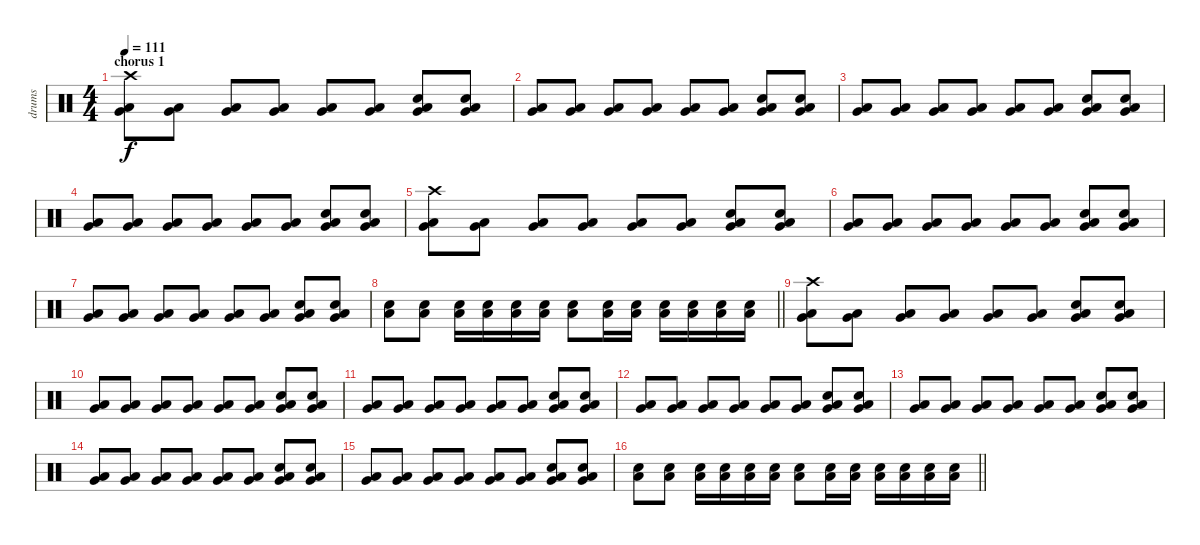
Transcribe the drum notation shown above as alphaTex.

\track ("drums" "drums") {instrument percussion}
\staff {score}
\articulation defaults
\ts (4 4)
\section ("" "chorus 1")
\tempo 111
\clef neutral
\ks c
("Very Low Tom (hit)" "Low Floor Tom (hit)" "Crash high (hit)").8{dy f} ("Very Low Tom (hit)" "Low Floor Tom (hit)").8 ("Very Low Tom (hit)" "Low Floor Tom (hit)").8 ("Very Low Tom (hit)" "Low Floor Tom (hit)").8 ("Very Low Tom (hit)" "Low Floor Tom (hit)").8 ("Very Low Tom (hit)" "Low Floor Tom (hit)").8 ("Electric Snare (hit)" "Very Low Tom (hit)" "Low Floor Tom (hit)").8 ("Electric Snare (hit)" "Very Low Tom (hit)" "Low Floor Tom (hit)").8 |
("Very Low Tom (hit)" "Low Floor Tom (hit)").8 ("Very Low Tom (hit)" "Low Floor Tom (hit)").8 ("Very Low Tom (hit)" "Low Floor Tom (hit)").8 ("Very Low Tom (hit)" "Low Floor Tom (hit)").8 ("Very Low Tom (hit)" "Low Floor Tom (hit)").8 ("Very Low Tom (hit)" "Low Floor Tom (hit)").8 ("Electric Snare (hit)" "Very Low Tom (hit)" "Low Floor Tom (hit)").8 ("Electric Snare (hit)" "Very Low Tom (hit)" "Low Floor Tom (hit)").8 |
("Very Low Tom (hit)" "Low Floor Tom (hit)").8 ("Very Low Tom (hit)" "Low Floor Tom (hit)").8 ("Very Low Tom (hit)" "Low Floor Tom (hit)").8 ("Very Low Tom (hit)" "Low Floor Tom (hit)").8 ("Very Low Tom (hit)" "Low Floor Tom (hit)").8 ("Very Low Tom (hit)" "Low Floor Tom (hit)").8 ("Electric Snare (hit)" "Very Low Tom (hit)" "Low Floor Tom (hit)").8 ("Electric Snare (hit)" "Very Low Tom (hit)" "Low Floor Tom (hit)").8 |
("Very Low Tom (hit)" "Low Floor Tom (hit)").8 ("Very Low Tom (hit)" "Low Floor Tom (hit)").8 ("Very Low Tom (hit)" "Low Floor Tom (hit)").8 ("Very Low Tom (hit)" "Low Floor Tom (hit)").8 ("Very Low Tom (hit)" "Low Floor Tom (hit)").8 ("Very Low Tom (hit)" "Low Floor Tom (hit)").8 ("Electric Snare (hit)" "Very Low Tom (hit)" "Low Floor Tom (hit)").8 ("Electric Snare (hit)" "Very Low Tom (hit)" "Low Floor Tom (hit)").8 |
("Very Low Tom (hit)" "Low Floor Tom (hit)" "Crash high (hit)").8 ("Very Low Tom (hit)" "Low Floor Tom (hit)").8 ("Very Low Tom (hit)" "Low Floor Tom (hit)").8 ("Very Low Tom (hit)" "Low Floor Tom (hit)").8 ("Very Low Tom (hit)" "Low Floor Tom (hit)").8 ("Very Low Tom (hit)" "Low Floor Tom (hit)").8 ("Electric Snare (hit)" "Very Low Tom (hit)" "Low Floor Tom (hit)").8 ("Electric Snare (hit)" "Very Low Tom (hit)" "Low Floor Tom (hit)").8 |
("Very Low Tom (hit)" "Low Floor Tom (hit)").8 ("Very Low Tom (hit)" "Low Floor Tom (hit)").8 ("Very Low Tom (hit)" "Low Floor Tom (hit)").8 ("Very Low Tom (hit)" "Low Floor Tom (hit)").8 ("Very Low Tom (hit)" "Low Floor Tom (hit)").8 ("Very Low Tom (hit)" "Low Floor Tom (hit)").8 ("Electric Snare (hit)" "Very Low Tom (hit)" "Low Floor Tom (hit)").8 ("Electric Snare (hit)" "Very Low Tom (hit)" "Low Floor Tom (hit)").8 |
("Very Low Tom (hit)" "Low Floor Tom (hit)").8 ("Very Low Tom (hit)" "Low Floor Tom (hit)").8 ("Very Low Tom (hit)" "Low Floor Tom (hit)").8 ("Very Low Tom (hit)" "Low Floor Tom (hit)").8 ("Very Low Tom (hit)" "Low Floor Tom (hit)").8 ("Very Low Tom (hit)" "Low Floor Tom (hit)").8 ("Electric Snare (hit)" "Very Low Tom (hit)" "Low Floor Tom (hit)").8 ("Electric Snare (hit)" "Very Low Tom (hit)" "Low Floor Tom (hit)").8 |
\barLineRight lightlight
("Electric Snare (hit)" "Low Floor Tom (hit)").8 ("Electric Snare (hit)" "Low Floor Tom (hit)").8 ("Electric Snare (hit)" "Low Floor Tom (hit)").16 ("Electric Snare (hit)" "Low Floor Tom (hit)").16 ("Electric Snare (hit)" "Low Floor Tom (hit)").16 ("Electric Snare (hit)" "Low Floor Tom (hit)").16 ("Electric Snare (hit)" "Low Floor Tom (hit)").8 ("Electric Snare (hit)" "Low Floor Tom (hit)").16 ("Electric Snare (hit)" "Low Floor Tom (hit)").16 ("Electric Snare (hit)" "Low Floor Tom (hit)").16 ("Electric Snare (hit)" "Low Floor Tom (hit)").16 ("Electric Snare (hit)" "Low Floor Tom (hit)").16 ("Electric Snare (hit)" "Low Floor Tom (hit)").16 |
("Very Low Tom (hit)" "Low Floor Tom (hit)" "Crash high (hit)").8 ("Very Low Tom (hit)" "Low Floor Tom (hit)").8 ("Very Low Tom (hit)" "Low Floor Tom (hit)").8 ("Very Low Tom (hit)" "Low Floor Tom (hit)").8 ("Very Low Tom (hit)" "Low Floor Tom (hit)").8 ("Very Low Tom (hit)" "Low Floor Tom (hit)").8 ("Electric Snare (hit)" "Very Low Tom (hit)" "Low Floor Tom (hit)").8 ("Electric Snare (hit)" "Very Low Tom (hit)" "Low Floor Tom (hit)").8 |
("Very Low Tom (hit)" "Low Floor Tom (hit)").8 ("Very Low Tom (hit)" "Low Floor Tom (hit)").8 ("Very Low Tom (hit)" "Low Floor Tom (hit)").8 ("Very Low Tom (hit)" "Low Floor Tom (hit)").8 ("Very Low Tom (hit)" "Low Floor Tom (hit)").8 ("Very Low Tom (hit)" "Low Floor Tom (hit)").8 ("Electric Snare (hit)" "Very Low Tom (hit)" "Low Floor Tom (hit)").8 ("Electric Snare (hit)" "Very Low Tom (hit)" "Low Floor Tom (hit)").8 |
("Very Low Tom (hit)" "Low Floor Tom (hit)").8 ("Very Low Tom (hit)" "Low Floor Tom (hit)").8 ("Very Low Tom (hit)" "Low Floor Tom (hit)").8 ("Very Low Tom (hit)" "Low Floor Tom (hit)").8 ("Very Low Tom (hit)" "Low Floor Tom (hit)").8 ("Very Low Tom (hit)" "Low Floor Tom (hit)").8 ("Electric Snare (hit)" "Very Low Tom (hit)" "Low Floor Tom (hit)").8 ("Electric Snare (hit)" "Very Low Tom (hit)" "Low Floor Tom (hit)").8 |
("Very Low Tom (hit)" "Low Floor Tom (hit)").8 ("Very Low Tom (hit)" "Low Floor Tom (hit)").8 ("Very Low Tom (hit)" "Low Floor Tom (hit)").8 ("Very Low Tom (hit)" "Low Floor Tom (hit)").8 ("Very Low Tom (hit)" "Low Floor Tom (hit)").8 ("Very Low Tom (hit)" "Low Floor Tom (hit)").8 ("Electric Snare (hit)" "Very Low Tom (hit)" "Low Floor Tom (hit)").8 ("Electric Snare (hit)" "Very Low Tom (hit)" "Low Floor Tom (hit)").8 |
("Very Low Tom (hit)" "Low Floor Tom (hit)").8 ("Very Low Tom (hit)" "Low Floor Tom (hit)").8 ("Very Low Tom (hit)" "Low Floor Tom (hit)").8 ("Very Low Tom (hit)" "Low Floor Tom (hit)").8 ("Very Low Tom (hit)" "Low Floor Tom (hit)").8 ("Very Low Tom (hit)" "Low Floor Tom (hit)").8 ("Electric Snare (hit)" "Very Low Tom (hit)" "Low Floor Tom (hit)").8 ("Electric Snare (hit)" "Very Low Tom (hit)" "Low Floor Tom (hit)").8 |
("Very Low Tom (hit)" "Low Floor Tom (hit)").8 ("Very Low Tom (hit)" "Low Floor Tom (hit)").8 ("Very Low Tom (hit)" "Low Floor Tom (hit)").8 ("Very Low Tom (hit)" "Low Floor Tom (hit)").8 ("Very Low Tom (hit)" "Low Floor Tom (hit)").8 ("Very Low Tom (hit)" "Low Floor Tom (hit)").8 ("Electric Snare (hit)" "Very Low Tom (hit)" "Low Floor Tom (hit)").8 ("Electric Snare (hit)" "Very Low Tom (hit)" "Low Floor Tom (hit)").8 |
("Very Low Tom (hit)" "Low Floor Tom (hit)").8 ("Very Low Tom (hit)" "Low Floor Tom (hit)").8 ("Very Low Tom (hit)" "Low Floor Tom (hit)").8 ("Very Low Tom (hit)" "Low Floor Tom (hit)").8 ("Very Low Tom (hit)" "Low Floor Tom (hit)").8 ("Very Low Tom (hit)" "Low Floor Tom (hit)").8 ("Electric Snare (hit)" "Very Low Tom (hit)" "Low Floor Tom (hit)").8 ("Electric Snare (hit)" "Very Low Tom (hit)" "Low Floor Tom (hit)").8 |
\barLineRight lightlight
("Electric Snare (hit)" "Low Floor Tom (hit)").8 ("Electric Snare (hit)" "Low Floor Tom (hit)").8 ("Electric Snare (hit)" "Low Floor Tom (hit)").16 ("Electric Snare (hit)" "Low Floor Tom (hit)").16 ("Electric Snare (hit)" "Low Floor Tom (hit)").16 ("Electric Snare (hit)" "Low Floor Tom (hit)").16 ("Electric Snare (hit)" "Low Floor Tom (hit)").8 ("Electric Snare (hit)" "Low Floor Tom (hit)").16 ("Electric Snare (hit)" "Low Floor Tom (hit)").16 ("Electric Snare (hit)" "Low Floor Tom (hit)").16 ("Electric Snare (hit)" "Low Floor Tom (hit)").16 ("Electric Snare (hit)" "Low Floor Tom (hit)").16 ("Electric Snare (hit)" "Low Floor Tom (hit)").16
